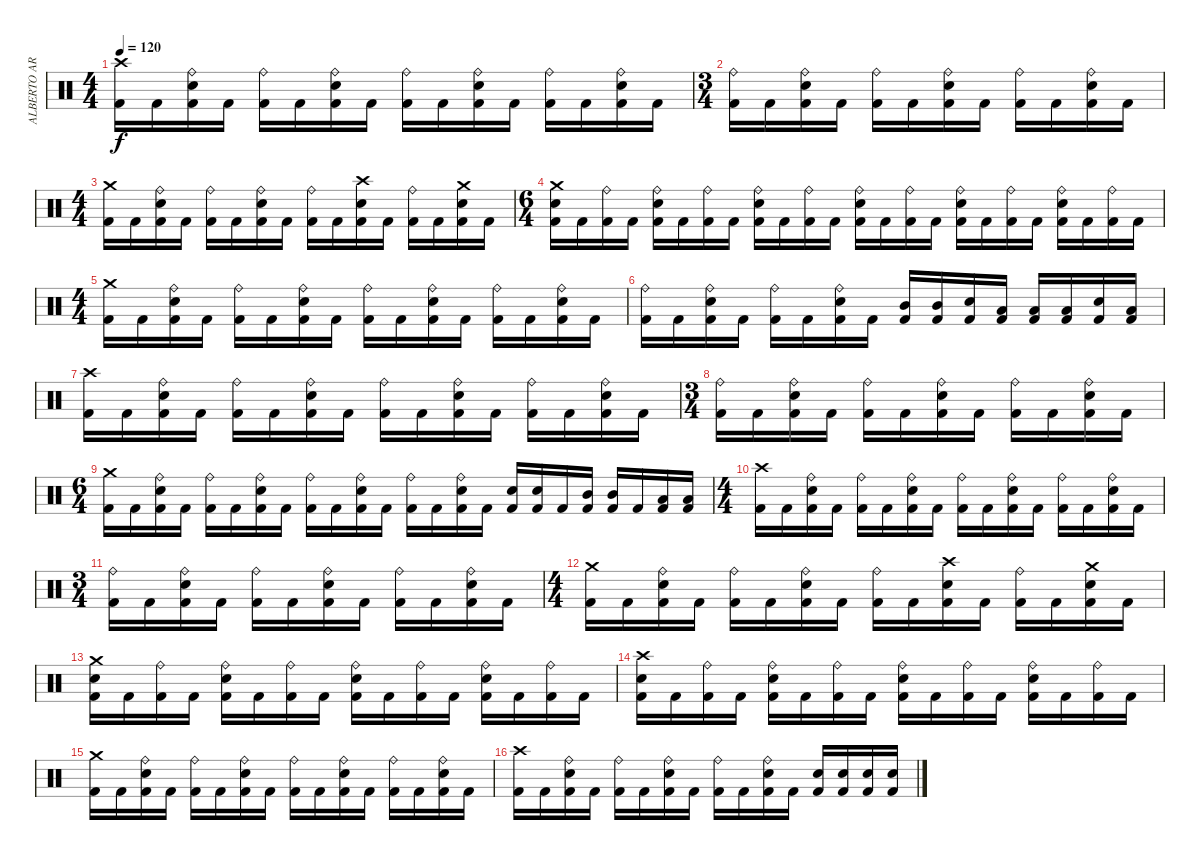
\track ("ALBERTO ARDINES" "ALBERTO AR") {instrument percussion}
\staff {score}
\articulation defaults
\ts (4 4)
\tempo 120
\clef neutral
\ks c
("Crash high (hit)" "Kick (hit) 2").16{dy f} "Kick (hit) 2".16 ("Ride (bell)" "Electric Snare (hit)" "Kick (hit) 2").16 "Kick (hit) 2".16 ("Ride (bell)" "Kick (hit) 2").16 "Kick (hit) 2".16 ("Ride (bell)" "Electric Snare (hit)" "Kick (hit) 2").16 "Kick (hit) 2".16 ("Ride (bell)" "Kick (hit) 2").16 "Kick (hit) 2".16 ("Ride (bell)" "Electric Snare (hit)" "Kick (hit) 2").16 "Kick (hit) 2".16 ("Ride (bell)" "Kick (hit) 2").16 "Kick (hit) 2".16 ("Ride (bell)" "Electric Snare (hit)" "Kick (hit) 2").16 "Kick (hit) 2".16 |
\ts (3 4)
("Ride (bell)" "Kick (hit) 2").16 "Kick (hit) 2".16 ("Ride (bell)" "Electric Snare (hit)" "Kick (hit) 2").16 "Kick (hit) 2".16 ("Ride (bell)" "Kick (hit) 2").16 "Kick (hit) 2".16 ("Ride (bell)" "Electric Snare (hit)" "Kick (hit) 2").16 "Kick (hit) 2".16 ("Ride (bell)" "Kick (hit) 2").16 "Kick (hit) 2".16 ("Ride (bell)" "Electric Snare (hit)" "Kick (hit) 2").16 "Kick (hit) 2".16 |
\ts (4 4)
("Crash medium (hit)" "Kick (hit) 2").16 "Kick (hit) 2".16 ("Ride (bell)" "Electric Snare (hit)" "Kick (hit) 2").16 "Kick (hit) 2".16 ("Ride (bell)" "Kick (hit) 2").16 "Kick (hit) 2".16 ("Ride (bell)" "Electric Snare (hit)" "Kick (hit) 2").16 "Kick (hit) 2".16 ("Ride (bell)" "Kick (hit) 2").16 "Kick (hit) 2".16 ("Crash high (hit)" "Electric Snare (hit)" "Kick (hit) 2").16 "Kick (hit) 2".16 ("Ride (bell)" "Kick (hit) 2").16 "Kick (hit) 2".16 ("Crash medium (hit)" "Electric Snare (hit)" "Kick (hit) 2").16 "Kick (hit) 2".16 |
\ts (6 4)
("Crash medium (hit)" "Electric Snare (hit)" "Kick (hit) 2").16 "Kick (hit) 2".16 ("Ride (bell)" "Kick (hit) 2").16 "Kick (hit) 2".16 ("Ride (bell)" "Electric Snare (hit)" "Kick (hit) 2").16 "Kick (hit) 2".16 ("Ride (bell)" "Kick (hit) 2").16 "Kick (hit) 2".16 ("Ride (bell)" "Electric Snare (hit)" "Kick (hit) 2").16 "Kick (hit) 2".16 ("Ride (bell)" "Kick (hit) 2").16 "Kick (hit) 2".16 ("Ride (bell)" "Electric Snare (hit)" "Kick (hit) 2").16 "Kick (hit) 2".16 ("Ride (bell)" "Kick (hit) 2").16 "Kick (hit) 2".16 ("Ride (bell)" "Electric Snare (hit)" "Kick (hit) 2").16 "Kick (hit) 2".16 ("Ride (bell)" "Kick (hit) 2").16 "Kick (hit) 2".16 ("Ride (bell)" "Electric Snare (hit)" "Kick (hit) 2").16 "Kick (hit) 2".16 ("Ride (bell)" "Kick (hit) 2").16 "Kick (hit) 2".16 |
\ts (4 4)
("Crash medium (hit)" "Kick (hit) 2").16 "Kick (hit) 2".16 ("Ride (bell)" "Electric Snare (hit)" "Kick (hit) 2").16 "Kick (hit) 2".16 ("Ride (bell)" "Kick (hit) 2").16 "Kick (hit) 2".16 ("Ride (bell)" "Electric Snare (hit)" "Kick (hit) 2").16 "Kick (hit) 2".16 ("Ride (bell)" "Kick (hit) 2").16 "Kick (hit) 2".16 ("Ride (bell)" "Electric Snare (hit)" "Kick (hit) 2").16 "Kick (hit) 2".16 ("Ride (bell)" "Kick (hit) 2").16 "Kick (hit) 2".16 ("Ride (bell)" "Electric Snare (hit)" "Kick (hit) 2").16 "Kick (hit) 2".16 |
("Ride (bell)" "Kick (hit) 2").16 "Kick (hit) 2".16 ("Ride (bell)" "Electric Snare (hit)" "Kick (hit) 2").16 "Kick (hit) 2".16 ("Ride (bell)" "Kick (hit) 2").16 "Kick (hit) 2".16 ("Ride (bell)" "Electric Snare (hit)" "Kick (hit) 2").16 "Kick (hit) 2".16 ("Mid Tom (hit)" "Kick (hit) 2").16 ("Mid Tom (hit)" "Kick (hit) 2").16 ("Electric Snare (hit)" "Kick (hit) 2").16 ("Low Tom (hit)" "Kick (hit) 2").16 ("Low Tom (hit)" "Kick (hit) 2").16 ("Low Floor Tom (hit)" "Kick (hit) 2").16 ("Electric Snare (hit)" "Kick (hit) 2").16 ("Low Floor Tom (hit)" "Kick (hit) 2").16 |
("Crash high (hit)" "Kick (hit) 2").16 "Kick (hit) 2".16 ("Ride (bell)" "Electric Snare (hit)" "Kick (hit) 2").16 "Kick (hit) 2".16 ("Ride (bell)" "Kick (hit) 2").16 "Kick (hit) 2".16 ("Ride (bell)" "Electric Snare (hit)" "Kick (hit) 2").16 "Kick (hit) 2".16 ("Ride (bell)" "Kick (hit) 2").16 "Kick (hit) 2".16 ("Ride (bell)" "Electric Snare (hit)" "Kick (hit) 2").16 "Kick (hit) 2".16 ("Ride (bell)" "Kick (hit) 2").16 "Kick (hit) 2".16 ("Ride (bell)" "Electric Snare (hit)" "Kick (hit) 2").16 "Kick (hit) 2".16 |
\ts (3 4)
("Ride (bell)" "Kick (hit) 2").16 "Kick (hit) 2".16 ("Ride (bell)" "Electric Snare (hit)" "Kick (hit) 2").16 "Kick (hit) 2".16 ("Ride (bell)" "Kick (hit) 2").16 "Kick (hit) 2".16 ("Ride (bell)" "Electric Snare (hit)" "Kick (hit) 2").16 "Kick (hit) 2".16 ("Ride (bell)" "Kick (hit) 2").16 "Kick (hit) 2".16 ("Ride (bell)" "Electric Snare (hit)" "Kick (hit) 2").16 "Kick (hit) 2".16 |
\ts (6 4)
("Crash medium (hit)" "Kick (hit) 2").16 "Kick (hit) 2".16 ("Ride (bell)" "Electric Snare (hit)" "Kick (hit) 2").16 "Kick (hit) 2".16 ("Ride (bell)" "Kick (hit) 2").16 "Kick (hit) 2".16 ("Ride (bell)" "Electric Snare (hit)" "Kick (hit) 2").16 "Kick (hit) 2".16 ("Ride (bell)" "Kick (hit) 2").16 "Kick (hit) 2".16 ("Ride (bell)" "Electric Snare (hit)" "Kick (hit) 2").16 "Kick (hit) 2".16 ("Ride (bell)" "Kick (hit) 2").16 "Kick (hit) 2".16 ("Ride (bell)" "Electric Snare (hit)" "Kick (hit) 2").16 "Kick (hit) 2".16 ("Electric Snare (hit)" "Kick (hit) 2").16 ("Electric Snare (hit)" "Kick (hit) 2").16 "Kick (hit) 2".16 ("Mid Tom (hit)" "Kick (hit) 2").16 ("Mid Tom (hit)" "Kick (hit) 2").16 "Kick (hit) 2".16 ("Low Tom (hit)" "Kick (hit) 2").16 ("Low Tom (hit)" "Kick (hit) 2").16 |
\ts (4 4)
("Crash high (hit)" "Kick (hit) 2").16 "Kick (hit) 2".16 ("Ride (bell)" "Electric Snare (hit)" "Kick (hit) 2").16 "Kick (hit) 2".16 ("Ride (bell)" "Kick (hit) 2").16 "Kick (hit) 2".16 ("Ride (bell)" "Electric Snare (hit)" "Kick (hit) 2").16 "Kick (hit) 2".16 ("Ride (bell)" "Kick (hit) 2").16 "Kick (hit) 2".16 ("Ride (bell)" "Electric Snare (hit)" "Kick (hit) 2").16 "Kick (hit) 2".16 ("Ride (bell)" "Kick (hit) 2").16 "Kick (hit) 2".16 ("Ride (bell)" "Electric Snare (hit)" "Kick (hit) 2").16 "Kick (hit) 2".16 |
\ts (3 4)
("Ride (bell)" "Kick (hit) 2").16 "Kick (hit) 2".16 ("Ride (bell)" "Electric Snare (hit)" "Kick (hit) 2").16 "Kick (hit) 2".16 ("Ride (bell)" "Kick (hit) 2").16 "Kick (hit) 2".16 ("Ride (bell)" "Electric Snare (hit)" "Kick (hit) 2").16 "Kick (hit) 2".16 ("Ride (bell)" "Kick (hit) 2").16 "Kick (hit) 2".16 ("Ride (bell)" "Electric Snare (hit)" "Kick (hit) 2").16 "Kick (hit) 2".16 |
\ts (4 4)
("Crash medium (hit)" "Kick (hit) 2").16 "Kick (hit) 2".16 ("Ride (bell)" "Electric Snare (hit)" "Kick (hit) 2").16 "Kick (hit) 2".16 ("Ride (bell)" "Kick (hit) 2").16 "Kick (hit) 2".16 ("Ride (bell)" "Electric Snare (hit)" "Kick (hit) 2").16 "Kick (hit) 2".16 ("Ride (bell)" "Kick (hit) 2").16 "Kick (hit) 2".16 ("Crash high (hit)" "Electric Snare (hit)" "Kick (hit) 2").16 "Kick (hit) 2".16 ("Ride (bell)" "Kick (hit) 2").16 "Kick (hit) 2".16 ("Crash medium (hit)" "Electric Snare (hit)" "Kick (hit) 2").16 "Kick (hit) 2".16 |
("Crash medium (hit)" "Electric Snare (hit)" "Kick (hit) 2").16 "Kick (hit) 2".16 ("Ride (bell)" "Kick (hit) 2").16 "Kick (hit) 2".16 ("Ride (bell)" "Electric Snare (hit)" "Kick (hit) 2").16 "Kick (hit) 2".16 ("Ride (bell)" "Kick (hit) 2").16 "Kick (hit) 2".16 ("Ride (bell)" "Electric Snare (hit)" "Kick (hit) 2").16 "Kick (hit) 2".16 ("Ride (bell)" "Kick (hit) 2").16 "Kick (hit) 2".16 ("Ride (bell)" "Electric Snare (hit)" "Kick (hit) 2").16 "Kick (hit) 2".16 ("Ride (bell)" "Kick (hit) 2").16 "Kick (hit) 2".16 |
("Crash high (hit)" "Electric Snare (hit)" "Kick (hit) 2").16 "Kick (hit) 2".16 ("Ride (bell)" "Kick (hit) 2").16 "Kick (hit) 2".16 ("Ride (bell)" "Electric Snare (hit)" "Kick (hit) 2").16 "Kick (hit) 2".16 ("Ride (bell)" "Kick (hit) 2").16 "Kick (hit) 2".16 ("Ride (bell)" "Electric Snare (hit)" "Kick (hit) 2").16 "Kick (hit) 2".16 ("Ride (bell)" "Kick (hit) 2").16 "Kick (hit) 2".16 ("Ride (bell)" "Electric Snare (hit)" "Kick (hit) 2").16 "Kick (hit) 2".16 ("Ride (bell)" "Kick (hit) 2").16 "Kick (hit) 2".16 |
("Crash medium (hit)" "Kick (hit) 2").16 "Kick (hit) 2".16 ("Ride (bell)" "Electric Snare (hit)" "Kick (hit) 2").16 "Kick (hit) 2".16 ("Ride (bell)" "Kick (hit) 2").16 "Kick (hit) 2".16 ("Ride (bell)" "Electric Snare (hit)" "Kick (hit) 2").16 "Kick (hit) 2".16 ("Ride (bell)" "Kick (hit) 2").16 "Kick (hit) 2".16 ("Ride (bell)" "Electric Snare (hit)" "Kick (hit) 2").16 "Kick (hit) 2".16 ("Ride (bell)" "Kick (hit) 2").16 "Kick (hit) 2".16 ("Ride (bell)" "Electric Snare (hit)" "Kick (hit) 2").16 "Kick (hit) 2".16 |
("Crash high (hit)" "Kick (hit) 2").16 "Kick (hit) 2".16 ("Ride (bell)" "Electric Snare (hit)" "Kick (hit) 2").16 "Kick (hit) 2".16 ("Ride (bell)" "Kick (hit) 2").16 "Kick (hit) 2".16 ("Ride (bell)" "Electric Snare (hit)" "Kick (hit) 2").16 "Kick (hit) 2".16 ("Ride (bell)" "Kick (hit) 2").16 "Kick (hit) 2".16 ("Ride (bell)" "Electric Snare (hit)" "Kick (hit) 2").16 "Kick (hit) 2".16 ("Electric Snare (hit)" "Kick (hit) 2").16 ("Electric Snare (hit)" "Kick (hit) 2").16 ("Electric Snare (hit)" "Kick (hit) 2").16 ("Electric Snare (hit)" "Kick (hit) 2").16
